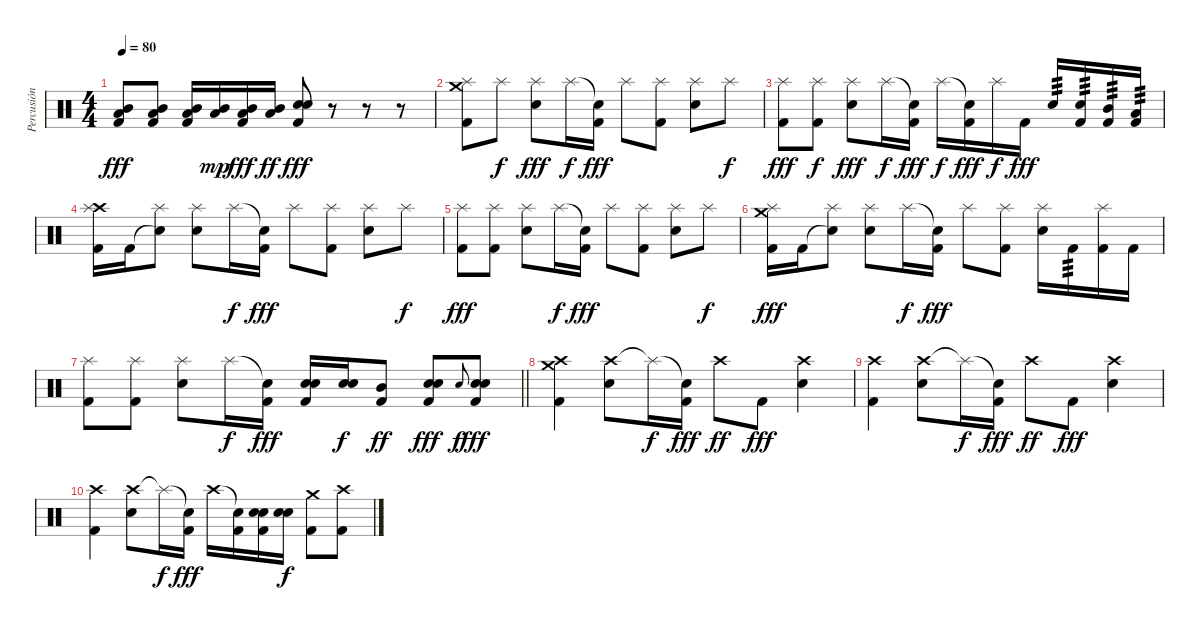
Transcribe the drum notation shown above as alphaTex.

\track ("Percusión" "Percusión") {instrument percussion}
\staff {score}
\articulation defaults
\ts (4 4)
\tempo 80
\clef neutral
\ks c
("Low Tom (hit)" "Mid Tom (hit)" "Kick (hit) 2").8{dy fff} ("Mid Tom (hit)" "Low Tom (hit)" "Kick (hit) 2").8 ("Low Tom (hit)" "Mid Tom (hit)" "Kick (hit) 2").16 ("Low Tom (hit)" "Mid Tom (hit)").16{dy mp} ("Low Tom (hit)" "Mid Tom (hit)" "Kick (hit) 2").16{dy fff} ("Low Tom (hit)" "Mid Tom (hit)").16{dy ff} ("Electric Snare (hit)" "Snare (hit) 2" "Kick (hit) 2").8{dy fff} r.8 r.8 r.8 |
("Crash medium (hit)" "Splash (hit)" "Kick (hit) 2").8 "Splash (hit)".8{dy f} ("Splash (hit)" "Electric Snare (hit)").8{dy fff} "Splash (hit)".16{dy f} ("Snare (hit)"{t} "Kick (hit) 2").16{dy fff} "Splash (hit)".8 ("Splash (hit)" "Kick (hit) 2").8 ("Splash (hit)" "Electric Snare (hit)").8 "Splash (hit)".8{dy f} |
("Splash (hit)" "Kick (hit) 2").8{dy fff} ("Splash (hit)" "Kick (hit) 2").8{dy f} ("Splash (hit)" "Electric Snare (hit)").8{dy fff} "Splash (hit)".16{dy f} ("Snare (hit)"{t} "Kick (hit) 2").16{dy fff} "Splash (hit)".16{dy f} ("Snare (hit)"{t} "Kick (hit) 2").16{dy fff} "Splash (hit)".16{dy f} "Kick (hit) 2".16{dy fff} "Electric Snare (hit)".16{tp 3} ("Electric Snare (hit)" "Kick (hit) 2").16{tp 3} ("Mid Tom (hit)" "Kick (hit) 2").16{tp 3} ("Low Tom (hit)" "Kick (hit) 2").16{tp 3} |
("Crash high (hit)" "Splash (hit)" "Kick (hit) 2").16 "Kick (hit) 2".16 ("Snare (hit)"{t} "Splash (hit)").8 ("Splash (hit)" "Electric Snare (hit)").8 "Splash (hit)".16{dy f} ("Snare (hit)"{t} "Kick (hit) 2").16{dy fff} "Splash (hit)".8 ("Splash (hit)" "Kick (hit) 2").8 ("Splash (hit)" "Electric Snare (hit)").8 "Splash (hit)".8{dy f} |
("Splash (hit)" "Kick (hit) 2").8{dy fff} ("Splash (hit)" "Kick (hit) 2").8 ("Splash (hit)" "Electric Snare (hit)").8 "Splash (hit)".16{dy f} ("Snare (hit)"{t} "Kick (hit) 2").16{dy fff} "Splash (hit)".8 ("Splash (hit)" "Kick (hit) 2").8 ("Splash (hit)" "Electric Snare (hit)").8 "Splash (hit)".8{dy f} |
("Crash medium (hit)" "Splash (hit)" "Kick (hit) 2").16{dy fff} "Kick (hit) 2".16 ("Snare (hit)"{t} "Splash (hit)").8 ("Splash (hit)" "Electric Snare (hit)").8 "Splash (hit)".16{dy f} ("Snare (hit)"{t} "Kick (hit) 2").16{dy fff} "Splash (hit)".8 ("Splash (hit)" "Kick (hit) 2").8 ("Splash (hit)" "Electric Snare (hit)").16 "Kick (hit) 2".16{tp 3} ("Splash (hit)" "Kick (hit) 2").16 "Kick (hit) 2".16 |
\barLineRight lightlight
("Splash (hit)" "Kick (hit) 2").8 ("Splash (hit)" "Kick (hit) 2").8 ("Splash (hit)" "Electric Snare (hit)").8 "Splash (hit)".16{dy f} ("Snare (hit)"{t} "Kick (hit) 2").16{dy fff} ("Electric Snare (hit)" "Electric Snare (hit)" "Kick (hit) 2").16 ("Snare (hit) 2" "Electric Snare (hit)").16{dy f} ("Mid Tom (hit)" "Kick (hit) 2").8{dy ff} ("Electric Snare (hit)" "Snare (hit) 2" "Kick (hit) 2").8{dy fff} "Electric Snare (hit)".8{gr onbeat dy f} ("Electric Snare (hit)" "Electric Snare (hit)" "Kick (hit) 2").8{dy fff} |
("Crash medium (hit)" "Crash high (hit)" "Kick (hit) 2").4 ("Crash high (hit)" "Electric Snare (hit)").8 "Splash (hit)"{t}.16{dy f} ("Snare (hit)"{t} "Kick (hit) 2").16{dy fff} "Crash high (hit)".8{dy ff} "Kick (hit) 2".8{dy fff} ("Crash high (hit)" "Electric Snare (hit)").4 |
("Crash high (hit)" "Kick (hit) 2").4 ("Crash high (hit)" "Electric Snare (hit)").8 "Splash (hit)"{t}.16{dy f} ("Snare (hit)"{t} "Kick (hit) 2").16{dy fff} "Crash high (hit)".8{dy ff} "Kick (hit) 2".8{dy fff} ("Crash high (hit)" "Electric Snare (hit)").4 |
("Crash high (hit)" "Kick (hit) 2").4 ("Crash high (hit)" "Electric Snare (hit)").8 "Splash (hit)"{t}.16{dy f} ("Snare (hit)"{t} "Kick (hit) 2").16{dy fff} "Crash high (hit)".16 ("Snare (hit)"{t} "Kick (hit) 2").16 ("Electric Snare (hit)" "Electric Snare (hit)" "Kick (hit) 2").16 ("Snare (hit) 2" "Electric Snare (hit)").16{dy f} ("Crash medium (hit)" "Kick (hit) 2").8 ("Crash high (hit)" "Kick (hit) 2").8
